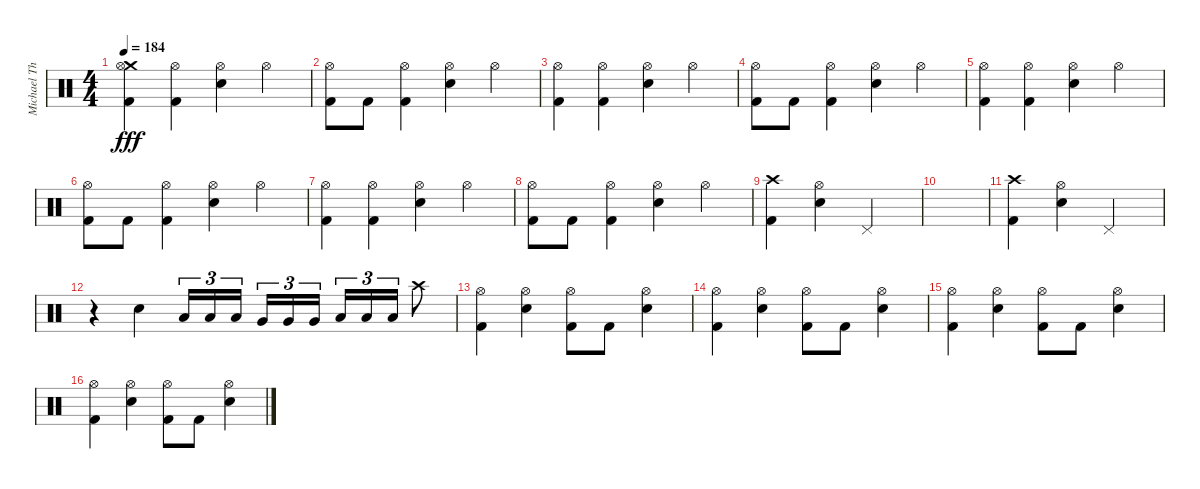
\track ("Michael Thomas - Drums" "Michael Th") {instrument percussion}
\staff {score}
\articulation defaults
\ts (4 4)
\tempo 184
\clef neutral
\ks c
("Crash medium (hit)" "Hi-Hat (open)" "Kick (hit) 2").4{dy fff} ("Hi-Hat (open)" "Kick (hit) 2").4 ("Hi-Hat (open)" "Snare (hit) 2").4 "Hi-Hat (open)".4 |
("Hi-Hat (open)" "Kick (hit) 2").8 "Kick (hit) 2".8 ("Hi-Hat (open)" "Kick (hit) 2").4 ("Hi-Hat (open)" "Snare (hit) 2").4 "Hi-Hat (open)".4 |
("Hi-Hat (open)" "Kick (hit) 2").4 ("Hi-Hat (open)" "Kick (hit) 2").4 ("Hi-Hat (open)" "Snare (hit) 2").4 "Hi-Hat (open)".4 |
("Hi-Hat (open)" "Kick (hit) 2").8 "Kick (hit) 2".8 ("Hi-Hat (open)" "Kick (hit) 2").4 ("Hi-Hat (open)" "Snare (hit) 2").4 "Hi-Hat (open)".4 |
("Hi-Hat (open)" "Kick (hit) 2").4 ("Hi-Hat (open)" "Kick (hit) 2").4 ("Hi-Hat (open)" "Snare (hit) 2").4 "Hi-Hat (open)".4 |
("Hi-Hat (open)" "Kick (hit) 2").8 "Kick (hit) 2".8 ("Hi-Hat (open)" "Kick (hit) 2").4 ("Hi-Hat (open)" "Snare (hit) 2").4 "Hi-Hat (open)".4 |
("Hi-Hat (open)" "Kick (hit) 2").4 ("Hi-Hat (open)" "Kick (hit) 2").4 ("Hi-Hat (open)" "Snare (hit) 2").4 "Hi-Hat (open)".4 |
("Hi-Hat (open)" "Kick (hit) 2").8 "Kick (hit) 2".8 ("Hi-Hat (open)" "Kick (hit) 2").4 ("Hi-Hat (open)" "Snare (hit) 2").4 "Hi-Hat (open)".4 |
("Crash high (hit)" "Kick (hit) 2").4 ("Hi-Hat (open)" "Snare (hit) 2").4 "Pedal Hi-Hat (hit)".2 |
|
("Crash high (hit)" "Kick (hit) 2").4 ("Hi-Hat (open)" "Snare (hit) 2").4 "Pedal Hi-Hat (hit)".2 |
r.4 "Snare (hit) 2".4 "Low Tom (hit)".16{tu (3 2)} "Low Tom (hit)".16{tu (3 2)} "Low Tom (hit)".16{tu (3 2) beam splitsecondary} "Very Low Tom (hit)".16{tu (3 2)} "Very Low Tom (hit)".16{tu (3 2)} "Very Low Tom (hit)".16{tu (3 2)} "Low Floor Tom (hit)".16{tu (3 2)} "Low Floor Tom (hit)".16{tu (3 2)} "Low Floor Tom (hit)".16{tu (3 2)} "Crash high (hit)".8 |
("Hi-Hat (open)" "Kick (hit) 2").4 ("Hi-Hat (open)" "Snare (hit) 2").4 ("Hi-Hat (open)" "Kick (hit) 2").8 "Kick (hit) 2".8 ("Hi-Hat (open)" "Snare (hit) 2").4 |
("Hi-Hat (open)" "Kick (hit) 2").4 ("Hi-Hat (open)" "Snare (hit) 2").4 ("Hi-Hat (open)" "Kick (hit) 2").8 "Kick (hit) 2".8 ("Hi-Hat (open)" "Snare (hit) 2").4 |
("Hi-Hat (open)" "Kick (hit) 2").4 ("Hi-Hat (open)" "Snare (hit) 2").4 ("Hi-Hat (open)" "Kick (hit) 2").8 "Kick (hit) 2".8 ("Hi-Hat (open)" "Snare (hit) 2").4 |
("Hi-Hat (open)" "Kick (hit) 2").4 ("Hi-Hat (open)" "Snare (hit) 2").4 ("Hi-Hat (open)" "Kick (hit) 2").8 "Kick (hit) 2".8 ("Hi-Hat (open)" "Snare (hit) 2").4
